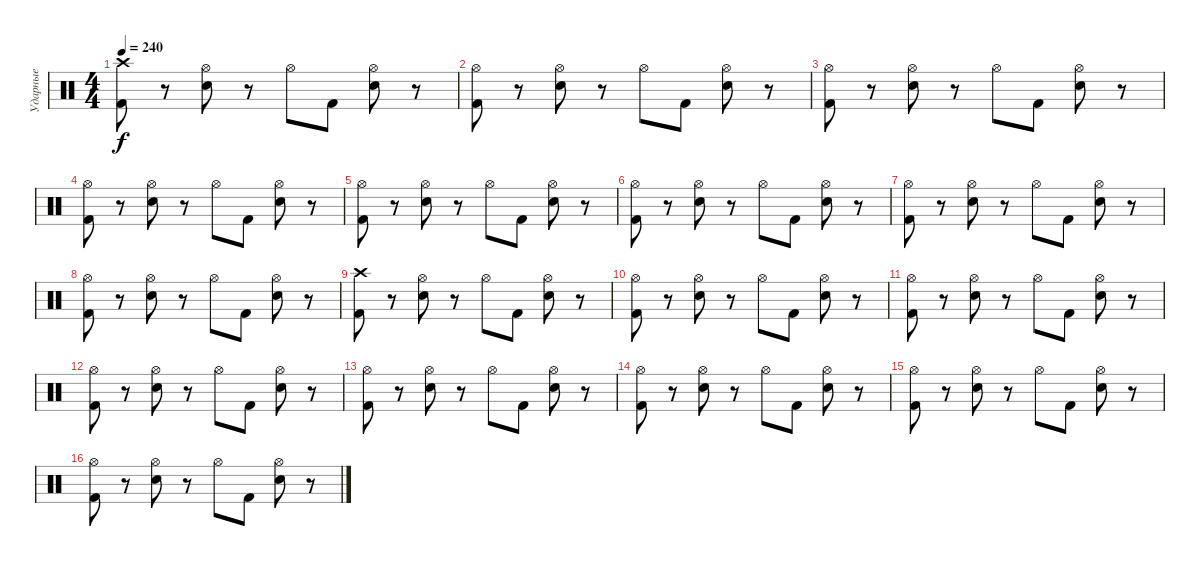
\track ("Ударные" "Ударные") {instrument percussion}
\staff {score}
\articulation defaults
\ts (4 4)
\tempo 240
\clef neutral
\ks c
("Crash high (hit)" "Kick (hit) 2").8{dy f} r.8 ("Hi-Hat (open)" "Electric Snare (hit)").8 r.8 "Hi-Hat (open)".8 "Kick (hit) 2".8 ("Hi-Hat (open)" "Electric Snare (hit)").8 r.8 |
("Hi-Hat (open)" "Kick (hit) 2").8 r.8 ("Hi-Hat (open)" "Electric Snare (hit)").8 r.8 "Hi-Hat (open)".8 "Kick (hit) 2".8 ("Hi-Hat (open)" "Electric Snare (hit)").8 r.8 |
("Hi-Hat (open)" "Kick (hit) 2").8 r.8 ("Hi-Hat (open)" "Electric Snare (hit)").8 r.8 "Hi-Hat (open)".8 "Kick (hit) 2".8 ("Hi-Hat (open)" "Electric Snare (hit)").8 r.8 |
("Hi-Hat (open)" "Kick (hit) 2").8 r.8 ("Hi-Hat (open)" "Electric Snare (hit)").8 r.8 "Hi-Hat (open)".8 "Kick (hit) 2".8 ("Hi-Hat (open)" "Electric Snare (hit)").8 r.8 |
("Hi-Hat (open)" "Kick (hit) 2").8 r.8 ("Hi-Hat (open)" "Electric Snare (hit)").8 r.8 "Hi-Hat (open)".8 "Kick (hit) 2".8 ("Hi-Hat (open)" "Electric Snare (hit)").8 r.8 |
("Hi-Hat (open)" "Kick (hit) 2").8 r.8 ("Hi-Hat (open)" "Electric Snare (hit)").8 r.8 "Hi-Hat (open)".8 "Kick (hit) 2".8 ("Hi-Hat (open)" "Electric Snare (hit)").8 r.8 |
("Hi-Hat (open)" "Kick (hit) 2").8 r.8 ("Hi-Hat (open)" "Electric Snare (hit)").8 r.8 "Hi-Hat (open)".8 "Kick (hit) 2".8 ("Hi-Hat (open)" "Electric Snare (hit)").8 r.8 |
("Hi-Hat (open)" "Kick (hit) 2").8 r.8 ("Hi-Hat (open)" "Electric Snare (hit)").8 r.8 "Hi-Hat (open)".8 "Kick (hit) 2".8 ("Hi-Hat (open)" "Electric Snare (hit)").8 r.8 |
("Crash high (hit)" "Kick (hit) 2").8 r.8 ("Hi-Hat (open)" "Electric Snare (hit)").8 r.8 "Hi-Hat (open)".8 "Kick (hit) 2".8 ("Hi-Hat (open)" "Electric Snare (hit)").8 r.8 |
("Hi-Hat (open)" "Kick (hit) 2").8 r.8 ("Hi-Hat (open)" "Electric Snare (hit)").8 r.8 "Hi-Hat (open)".8 "Kick (hit) 2".8 ("Hi-Hat (open)" "Electric Snare (hit)").8 r.8 |
("Hi-Hat (open)" "Kick (hit) 2").8 r.8 ("Hi-Hat (open)" "Electric Snare (hit)").8 r.8 "Hi-Hat (open)".8 "Kick (hit) 2".8 ("Hi-Hat (open)" "Electric Snare (hit)").8 r.8 |
("Hi-Hat (open)" "Kick (hit) 2").8 r.8 ("Hi-Hat (open)" "Electric Snare (hit)").8 r.8 "Hi-Hat (open)".8 "Kick (hit) 2".8 ("Hi-Hat (open)" "Electric Snare (hit)").8 r.8 |
("Hi-Hat (open)" "Kick (hit) 2").8 r.8 ("Hi-Hat (open)" "Electric Snare (hit)").8 r.8 "Hi-Hat (open)".8 "Kick (hit) 2".8 ("Hi-Hat (open)" "Electric Snare (hit)").8 r.8 |
("Hi-Hat (open)" "Kick (hit) 2").8 r.8 ("Hi-Hat (open)" "Electric Snare (hit)").8 r.8 "Hi-Hat (open)".8 "Kick (hit) 2".8 ("Hi-Hat (open)" "Electric Snare (hit)").8 r.8 |
("Hi-Hat (open)" "Kick (hit) 2").8 r.8 ("Hi-Hat (open)" "Electric Snare (hit)").8 r.8 "Hi-Hat (open)".8 "Kick (hit) 2".8 ("Hi-Hat (open)" "Electric Snare (hit)").8 r.8 |
("Hi-Hat (open)" "Kick (hit) 2").8 r.8 ("Hi-Hat (open)" "Electric Snare (hit)").8 r.8 "Hi-Hat (open)".8 "Kick (hit) 2".8 ("Hi-Hat (open)" "Electric Snare (hit)").8 r.8
